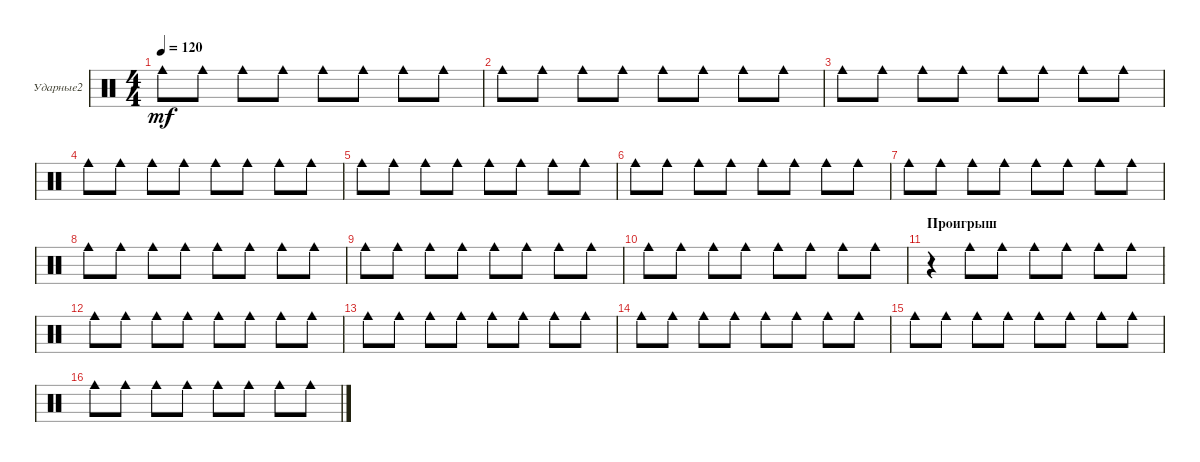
\defaultSystemsLayout 4
\bracketExtendMode groupsimilarinstruments
\firstSystemTrackNameOrientation horizontal
\otherSystemsTrackNameOrientation horizontal
\track ("Е.Кулаков" "Ударные2") {instrument percussion}
\staff {score}
\articulation defaults
\ts (4 4)
\tempo 120
\clef neutral
\ks c "Cowbell medium (hit)".8{dy mf} "Cowbell medium (hit)".8 "Cowbell medium (hit)".8 "Cowbell medium (hit)".8 "Cowbell medium (hit)".8 "Cowbell medium (hit)".8 "Cowbell medium (hit)".8 "Cowbell medium (hit)".8
|
"Cowbell medium (hit)".8 "Cowbell medium (hit)".8 "Cowbell medium (hit)".8 "Cowbell medium (hit)".8 "Cowbell medium (hit)".8 "Cowbell medium (hit)".8 "Cowbell medium (hit)".8 "Cowbell medium (hit)".8 |
"Cowbell medium (hit)".8 "Cowbell medium (hit)".8 "Cowbell medium (hit)".8 "Cowbell medium (hit)".8 "Cowbell medium (hit)".8 "Cowbell medium (hit)".8 "Cowbell medium (hit)".8 "Cowbell medium (hit)".8 |
"Cowbell medium (hit)".8 "Cowbell medium (hit)".8 "Cowbell medium (hit)".8 "Cowbell medium (hit)".8 "Cowbell medium (hit)".8 "Cowbell medium (hit)".8 "Cowbell medium (hit)".8 "Cowbell medium (hit)".8 |
"Cowbell medium (hit)".8 "Cowbell medium (hit)".8 "Cowbell medium (hit)".8 "Cowbell medium (hit)".8 "Cowbell medium (hit)".8 "Cowbell medium (hit)".8 "Cowbell medium (hit)".8 "Cowbell medium (hit)".8 |
"Cowbell medium (hit)".8 "Cowbell medium (hit)".8 "Cowbell medium (hit)".8 "Cowbell medium (hit)".8 "Cowbell medium (hit)".8 "Cowbell medium (hit)".8 "Cowbell medium (hit)".8 "Cowbell medium (hit)".8 |
"Cowbell medium (hit)".8 "Cowbell medium (hit)".8 "Cowbell medium (hit)".8 "Cowbell medium (hit)".8 "Cowbell medium (hit)".8 "Cowbell medium (hit)".8 "Cowbell medium (hit)".8 "Cowbell medium (hit)".8 |
"Cowbell medium (hit)".8 "Cowbell medium (hit)".8 "Cowbell medium (hit)".8 "Cowbell medium (hit)".8 "Cowbell medium (hit)".8 "Cowbell medium (hit)".8 "Cowbell medium (hit)".8 "Cowbell medium (hit)".8 |
"Cowbell medium (hit)".8 "Cowbell medium (hit)".8 "Cowbell medium (hit)".8 "Cowbell medium (hit)".8 "Cowbell medium (hit)".8 "Cowbell medium (hit)".8 "Cowbell medium (hit)".8 "Cowbell medium (hit)".8 |
"Cowbell medium (hit)".8 "Cowbell medium (hit)".8 "Cowbell medium (hit)".8 "Cowbell medium (hit)".8 "Cowbell medium (hit)".8 "Cowbell medium (hit)".8 "Cowbell medium (hit)".8 "Cowbell medium (hit)".8 |
\section ("" "Проигрыш")
r.4 "Cowbell medium (hit)".8 "Cowbell medium (hit)".8 "Cowbell medium (hit)".8 "Cowbell medium (hit)".8 "Cowbell medium (hit)".8 "Cowbell medium (hit)".8 |
"Cowbell medium (hit)".8 "Cowbell medium (hit)".8 "Cowbell medium (hit)".8 "Cowbell medium (hit)".8 "Cowbell medium (hit)".8 "Cowbell medium (hit)".8 "Cowbell medium (hit)".8 "Cowbell medium (hit)".8 |
"Cowbell medium (hit)".8 "Cowbell medium (hit)".8 "Cowbell medium (hit)".8 "Cowbell medium (hit)".8 "Cowbell medium (hit)".8 "Cowbell medium (hit)".8 "Cowbell medium (hit)".8 "Cowbell medium (hit)".8 |
"Cowbell medium (hit)".8 "Cowbell medium (hit)".8 "Cowbell medium (hit)".8 "Cowbell medium (hit)".8 "Cowbell medium (hit)".8 "Cowbell medium (hit)".8 "Cowbell medium (hit)".8 "Cowbell medium (hit)".8 |
"Cowbell medium (hit)".8 "Cowbell medium (hit)".8 "Cowbell medium (hit)".8 "Cowbell medium (hit)".8 "Cowbell medium (hit)".8 "Cowbell medium (hit)".8 "Cowbell medium (hit)".8 "Cowbell medium (hit)".8 |
"Cowbell medium (hit)".8 "Cowbell medium (hit)".8 "Cowbell medium (hit)".8 "Cowbell medium (hit)".8 "Cowbell medium (hit)".8 "Cowbell medium (hit)".8 "Cowbell medium (hit)".8 "Cowbell medium (hit)".8
